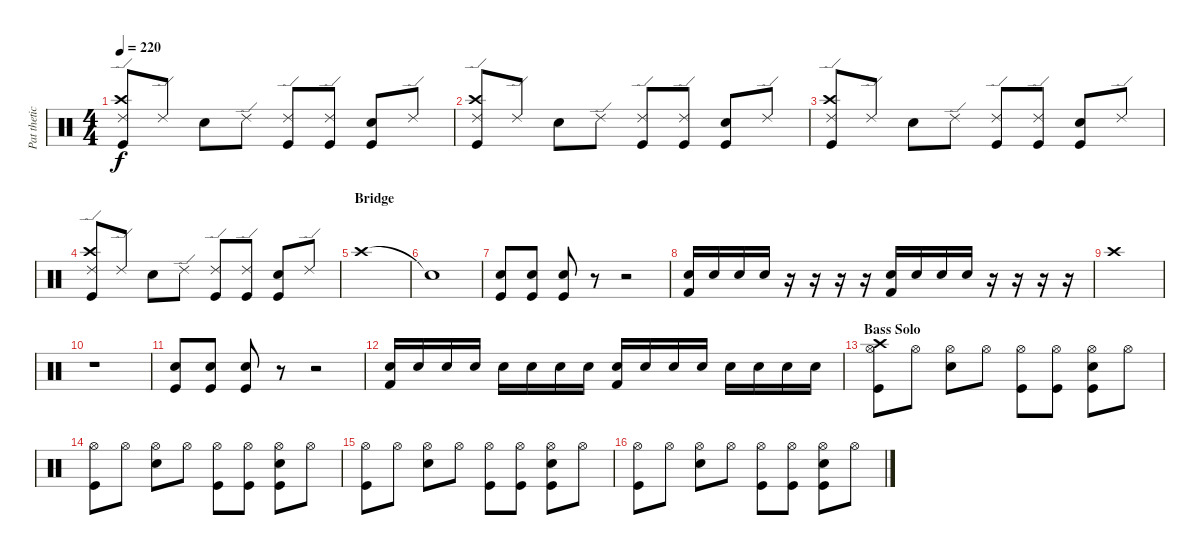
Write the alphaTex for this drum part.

\track ("Pat thetic " "Pat thetic") {instrument percussion}
\staff {score}
\articulation defaults
\ts (4 4)
\tempo 220
\clef neutral
\ks c
("Kick (hit)" "Crash high (hit)" "Ride (edge) 2").8{dy f} "Ride (edge) 2".8 "Electric Snare (hit)".8 "Ride (edge) 2".8 ("Kick (hit)" "Ride (edge) 2").8 ("Kick (hit)" "Ride (edge) 2").8 ("Kick (hit)" "Electric Snare (hit)").8 "Ride (edge) 2".8 |
("Kick (hit)" "Crash high (hit)" "Ride (edge) 2").8 "Ride (edge) 2".8 "Electric Snare (hit)".8 "Ride (edge) 2".8 ("Kick (hit)" "Ride (edge) 2").8 ("Kick (hit)" "Ride (edge) 2").8 ("Kick (hit)" "Electric Snare (hit)").8 "Ride (edge) 2".8 |
("Kick (hit)" "Crash high (hit)" "Ride (edge) 2").8 "Ride (edge) 2".8 "Electric Snare (hit)".8 "Ride (edge) 2".8 ("Kick (hit)" "Ride (edge) 2").8 ("Kick (hit)" "Ride (edge) 2").8 ("Kick (hit)" "Electric Snare (hit)").8 "Ride (edge) 2".8 |
("Kick (hit)" "Crash high (hit)" "Ride (edge) 2").8 "Ride (edge) 2".8 "Electric Snare (hit)".8 "Ride (edge) 2".8 ("Kick (hit)" "Ride (edge) 2").8 ("Kick (hit)" "Ride (edge) 2").8 ("Kick (hit)" "Electric Snare (hit)").8 "Ride (edge) 2".8 |
\section ("" "Bridge")
"Crash high (hit)".1 |
"Snare (hit)"{t}.1 |
("Kick (hit)" "Electric Snare (hit)").8 ("Kick (hit)" "Electric Snare (hit)").8 ("Kick (hit)" "Electric Snare (hit)").8 r.8 r.2 |
("Kick (hit) 2" "Electric Snare (hit)").16 "Electric Snare (hit)".16 "Electric Snare (hit)".16 "Electric Snare (hit)".16 r.16 r.16 r.16 r.16 ("Kick (hit) 2" "Electric Snare (hit)").16 "Electric Snare (hit)".16 "Electric Snare (hit)".16 "Electric Snare (hit)".16 r.16 r.16 r.16 r.16 |
"Crash high (hit)".1 |
r.1 |
("Kick (hit)" "Electric Snare (hit)").8 ("Kick (hit)" "Electric Snare (hit)").8 ("Kick (hit)" "Electric Snare (hit)").8 r.8 r.2 |
("Kick (hit) 2" "Electric Snare (hit)").16 "Electric Snare (hit)".16 "Electric Snare (hit)".16 "Electric Snare (hit)".16 "Electric Snare (hit)".16 "Electric Snare (hit)".16 "Electric Snare (hit)".16 "Electric Snare (hit)".16 ("Kick (hit) 2" "Electric Snare (hit)").16 "Electric Snare (hit)".16 "Electric Snare (hit)".16 "Electric Snare (hit)".16 "Electric Snare (hit)".16 "Electric Snare (hit)".16 "Electric Snare (hit)".16 "Electric Snare (hit)".16 |
\section ("" "Bass Solo")
("Kick (hit)" "Crash high (hit)" "Hi-Hat (open)").8 "Hi-Hat (open)".8 ("Electric Snare (hit)" "Hi-Hat (open)").8 "Hi-Hat (open)".8 ("Kick (hit)" "Hi-Hat (open)").8 ("Kick (hit)" "Hi-Hat (open)").8 ("Kick (hit)" "Electric Snare (hit)" "Hi-Hat (open)").8 "Hi-Hat (open)".8 |
("Kick (hit)" "Hi-Hat (open)").8 "Hi-Hat (open)".8 ("Electric Snare (hit)" "Hi-Hat (open)").8 "Hi-Hat (open)".8 ("Kick (hit)" "Hi-Hat (open)").8 ("Kick (hit)" "Hi-Hat (open)").8 ("Kick (hit)" "Electric Snare (hit)" "Hi-Hat (open)").8 "Hi-Hat (open)".8 |
("Kick (hit)" "Hi-Hat (open)").8 "Hi-Hat (open)".8 ("Electric Snare (hit)" "Hi-Hat (open)").8 "Hi-Hat (open)".8 ("Kick (hit)" "Hi-Hat (open)").8 ("Kick (hit)" "Hi-Hat (open)").8 ("Kick (hit)" "Electric Snare (hit)" "Hi-Hat (open)").8 "Hi-Hat (open)".8 |
("Kick (hit)" "Hi-Hat (open)").8 "Hi-Hat (open)".8 ("Electric Snare (hit)" "Hi-Hat (open)").8 "Hi-Hat (open)".8 ("Kick (hit)" "Hi-Hat (open)").8 ("Kick (hit)" "Hi-Hat (open)").8 ("Kick (hit)" "Electric Snare (hit)" "Hi-Hat (open)").8 "Hi-Hat (open)".8
